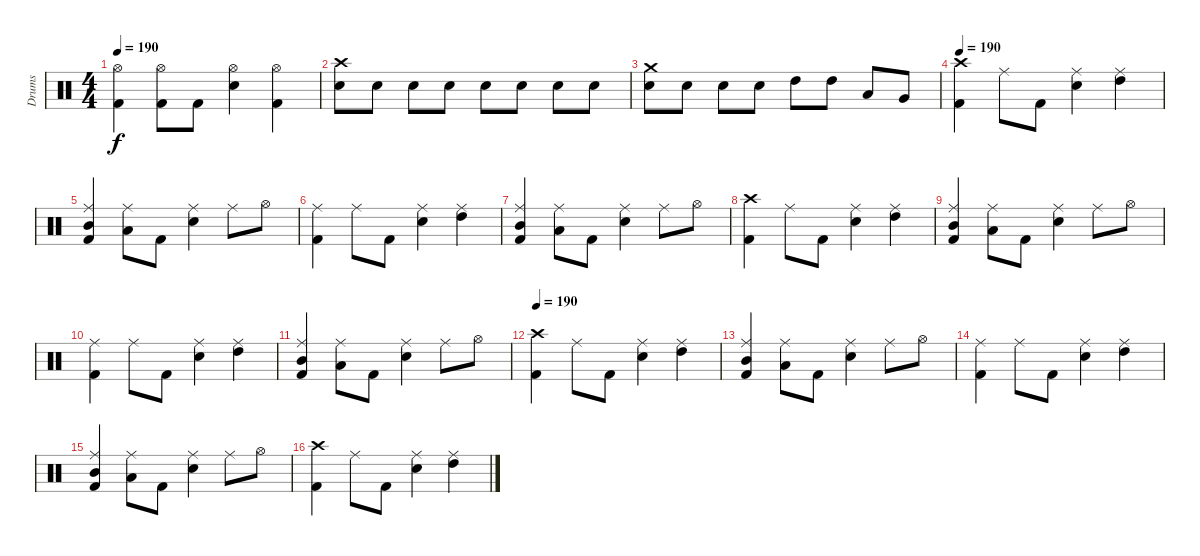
\track ("Drums" "Drums") {instrument percussion}
\staff {score}
\articulation defaults
\ts (4 4)
\tempo 190
\clef neutral
\ks c
("Hi-Hat (open)" "Kick (hit) 2").4{dy f} ("Hi-Hat (open)" "Kick (hit) 2").8 "Kick (hit) 2".8 ("Hi-Hat (open)" "Electric Snare (hit)").4 ("Hi-Hat (open)" "Kick (hit) 2").4 |
("Crash high (hit)" "Electric Snare (hit)").8 "Electric Snare (hit)".8 "Electric Snare (hit)".8 "Electric Snare (hit)".8 "Electric Snare (hit)".8 "Electric Snare (hit)".8 "Electric Snare (hit)".8 "Electric Snare (hit)".8 |
("Crash medium (hit)" "Electric Snare (hit)").8 "Electric Snare (hit)".8 "Electric Snare (hit)".8 "Electric Snare (hit)".8 "High Tom (hit)".8 "High Tom (hit)".8 "Low Tom (hit)".8 "Very Low Tom (hit)".8 |
\tempo 190
("Crash high (hit)" "Kick (hit) 2").4 "Ride (middle)".8 "Kick (hit) 2".8 ("Ride (middle)" "Electric Snare (hit)").4 ("Ride (middle)" "High Tom (hit)").4 |
("Ride (middle)" "Mid Tom (hit)" "Kick (hit) 2").4 ("Ride (middle)" "Low Tom (hit)").8 "Kick (hit) 2".8 ("Ride (middle)" "Electric Snare (hit)").4 "Ride (middle)".8 "Hi-Hat (open)".8 |
("Ride (middle)" "Kick (hit) 2").4 "Ride (middle)".8 "Kick (hit) 2".8 ("Ride (middle)" "Electric Snare (hit)").4 ("Ride (middle)" "High Tom (hit)").4 |
("Ride (middle)" "Mid Tom (hit)" "Kick (hit) 2").4 ("Ride (middle)" "Low Tom (hit)").8 "Kick (hit) 2".8 ("Ride (middle)" "Electric Snare (hit)").4 "Ride (middle)".8 "Hi-Hat (open)".8 |
("Crash high (hit)" "Kick (hit) 2").4 "Ride (middle)".8 "Kick (hit) 2".8 ("Ride (middle)" "Electric Snare (hit)").4 ("Ride (middle)" "High Tom (hit)").4 |
("Ride (middle)" "Mid Tom (hit)" "Kick (hit) 2").4 ("Ride (middle)" "Low Tom (hit)").8 "Kick (hit) 2".8 ("Ride (middle)" "Electric Snare (hit)").4 "Ride (middle)".8 "Hi-Hat (open)".8 |
("Ride (middle)" "Kick (hit) 2").4 "Ride (middle)".8 "Kick (hit) 2".8 ("Ride (middle)" "Electric Snare (hit)").4 ("Ride (middle)" "High Tom (hit)").4 |
("Ride (middle)" "Mid Tom (hit)" "Kick (hit) 2").4 ("Ride (middle)" "Low Tom (hit)").8 "Kick (hit) 2".8 ("Ride (middle)" "Electric Snare (hit)").4 "Ride (middle)".8 "Hi-Hat (open)".8 |
\tempo 190
("Crash high (hit)" "Kick (hit) 2").4 "Ride (middle)".8 "Kick (hit) 2".8 ("Ride (middle)" "Electric Snare (hit)").4 ("Ride (middle)" "High Tom (hit)").4 |
("Ride (middle)" "Mid Tom (hit)" "Kick (hit) 2").4 ("Ride (middle)" "Low Tom (hit)").8 "Kick (hit) 2".8 ("Ride (middle)" "Electric Snare (hit)").4 "Ride (middle)".8 "Hi-Hat (open)".8 |
("Ride (middle)" "Kick (hit) 2").4 "Ride (middle)".8 "Kick (hit) 2".8 ("Ride (middle)" "Electric Snare (hit)").4 ("Ride (middle)" "High Tom (hit)").4 |
("Ride (middle)" "Mid Tom (hit)" "Kick (hit) 2").4 ("Ride (middle)" "Low Tom (hit)").8 "Kick (hit) 2".8 ("Ride (middle)" "Electric Snare (hit)").4 "Ride (middle)".8 "Hi-Hat (open)".8 |
("Crash high (hit)" "Kick (hit) 2").4 "Ride (middle)".8 "Kick (hit) 2".8 ("Ride (middle)" "Electric Snare (hit)").4 ("Ride (middle)" "High Tom (hit)").4
